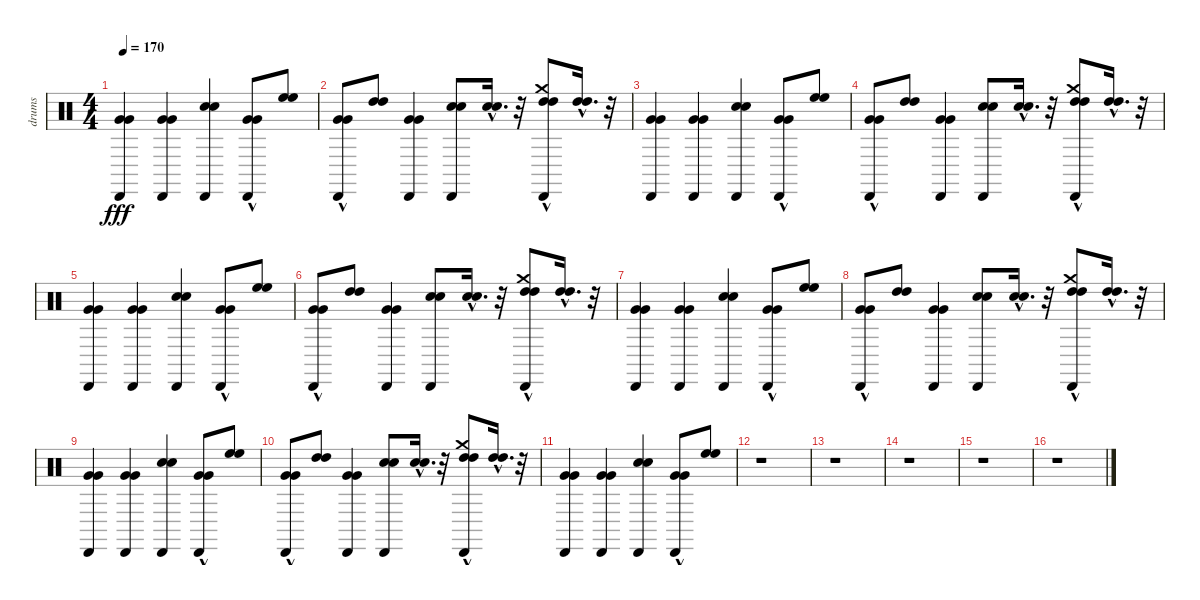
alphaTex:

\track ("drums" "drums") {instrument percussion}
\staff {score}
\articulation defaults
\ts (4 4)
\tempo 170
\clef neutral
\ks c
("Very Low Tom (hit)" "Very Low Tom (hit)" "Cabasa (hit)").4{dy fff} ("Very Low Tom (hit)" "Very Low Tom (hit)" "Cabasa (hit)").4 ("Electric Snare (hit)" "Electric Snare (hit)" "Cabasa (hit)").4 ("Very Low Tom (hit)"{hac} "Very Low Tom (hit)"{hac} "Cabasa (hit)").8 ("High Floor Tom (hit)" "High Floor Tom (hit)").8 |
("Very Low Tom (hit)"{hac} "Very Low Tom (hit)"{hac} "Cabasa (hit)").8 ("High Tom (hit)" "High Tom (hit)").8 ("Very Low Tom (hit)" "Very Low Tom (hit)" "Cabasa (hit)").4 ("Electric Snare (hit)" "Electric Snare (hit)" "Cabasa (hit)").8 ("Electric Snare (hit)"{hac} "Electric Snare (hit)"{hac}).16{d} r.32 ("High Tom (hit)"{hac} "High Tom (hit)"{hac} "Crash medium (hit)" "Cabasa (hit)").8 ("High Tom (hit)"{hac} "High Tom (hit)"{hac}).16{d} r.32 |
("Very Low Tom (hit)" "Very Low Tom (hit)" "Cabasa (hit)").4 ("Very Low Tom (hit)" "Very Low Tom (hit)" "Cabasa (hit)").4 ("Electric Snare (hit)" "Electric Snare (hit)" "Cabasa (hit)").4 ("Very Low Tom (hit)"{hac} "Very Low Tom (hit)"{hac} "Cabasa (hit)").8 ("High Floor Tom (hit)" "High Floor Tom (hit)").8 |
("Very Low Tom (hit)"{hac} "Very Low Tom (hit)"{hac} "Cabasa (hit)").8 ("High Tom (hit)" "High Tom (hit)").8 ("Very Low Tom (hit)" "Very Low Tom (hit)" "Cabasa (hit)").4 ("Electric Snare (hit)" "Electric Snare (hit)" "Cabasa (hit)").8 ("Electric Snare (hit)"{hac} "Electric Snare (hit)"{hac}).16{d} r.32 ("High Tom (hit)"{hac} "High Tom (hit)"{hac} "Crash medium (hit)" "Cabasa (hit)").8 ("High Tom (hit)"{hac} "High Tom (hit)"{hac}).16{d} r.32 |
("Very Low Tom (hit)" "Very Low Tom (hit)" "Cabasa (hit)").4 ("Very Low Tom (hit)" "Very Low Tom (hit)" "Cabasa (hit)").4 ("Electric Snare (hit)" "Electric Snare (hit)" "Cabasa (hit)").4 ("Very Low Tom (hit)"{hac} "Very Low Tom (hit)"{hac} "Cabasa (hit)").8 ("High Floor Tom (hit)" "High Floor Tom (hit)").8 |
("Very Low Tom (hit)"{hac} "Very Low Tom (hit)"{hac} "Cabasa (hit)").8 ("High Tom (hit)" "High Tom (hit)").8 ("Very Low Tom (hit)" "Very Low Tom (hit)" "Cabasa (hit)").4 ("Electric Snare (hit)" "Electric Snare (hit)" "Cabasa (hit)").8 ("Electric Snare (hit)"{hac} "Electric Snare (hit)"{hac}).16{d} r.32 ("High Tom (hit)"{hac} "High Tom (hit)"{hac} "Crash medium (hit)" "Cabasa (hit)").8 ("High Tom (hit)"{hac} "High Tom (hit)"{hac}).16{d} r.32 |
("Very Low Tom (hit)" "Very Low Tom (hit)" "Cabasa (hit)").4 ("Very Low Tom (hit)" "Very Low Tom (hit)" "Cabasa (hit)").4 ("Electric Snare (hit)" "Electric Snare (hit)" "Cabasa (hit)").4 ("Very Low Tom (hit)"{hac} "Very Low Tom (hit)"{hac} "Cabasa (hit)").8 ("High Floor Tom (hit)" "High Floor Tom (hit)").8 |
("Very Low Tom (hit)"{hac} "Very Low Tom (hit)"{hac} "Cabasa (hit)").8 ("High Tom (hit)" "High Tom (hit)").8 ("Very Low Tom (hit)" "Very Low Tom (hit)" "Cabasa (hit)").4 ("Electric Snare (hit)" "Electric Snare (hit)" "Cabasa (hit)").8 ("Electric Snare (hit)"{hac} "Electric Snare (hit)"{hac}).16{d} r.32 ("High Tom (hit)"{hac} "High Tom (hit)"{hac} "Crash medium (hit)" "Cabasa (hit)").8 ("High Tom (hit)"{hac} "High Tom (hit)"{hac}).16{d} r.32 |
("Very Low Tom (hit)" "Very Low Tom (hit)" "Cabasa (hit)").4 ("Very Low Tom (hit)" "Very Low Tom (hit)" "Cabasa (hit)").4 ("Electric Snare (hit)" "Electric Snare (hit)" "Cabasa (hit)").4 ("Very Low Tom (hit)"{hac} "Very Low Tom (hit)"{hac} "Cabasa (hit)").8 ("High Floor Tom (hit)" "High Floor Tom (hit)").8 |
("Very Low Tom (hit)"{hac} "Very Low Tom (hit)"{hac} "Cabasa (hit)").8 ("High Tom (hit)" "High Tom (hit)").8 ("Very Low Tom (hit)" "Very Low Tom (hit)" "Cabasa (hit)").4 ("Electric Snare (hit)" "Electric Snare (hit)" "Cabasa (hit)").8 ("Electric Snare (hit)"{hac} "Electric Snare (hit)"{hac}).16{d} r.32 ("High Tom (hit)"{hac} "High Tom (hit)"{hac} "Crash medium (hit)" "Cabasa (hit)").8 ("High Tom (hit)"{hac} "High Tom (hit)"{hac}).16{d} r.32 |
("Very Low Tom (hit)" "Very Low Tom (hit)" "Cabasa (hit)").4 ("Very Low Tom (hit)" "Very Low Tom (hit)" "Cabasa (hit)").4 ("Electric Snare (hit)" "Electric Snare (hit)" "Cabasa (hit)").4 ("Very Low Tom (hit)"{hac} "Very Low Tom (hit)"{hac} "Cabasa (hit)").8 ("High Floor Tom (hit)" "High Floor Tom (hit)").8 |
r.1 |
r.1 |
r.1 |
r.1 |
r.1
